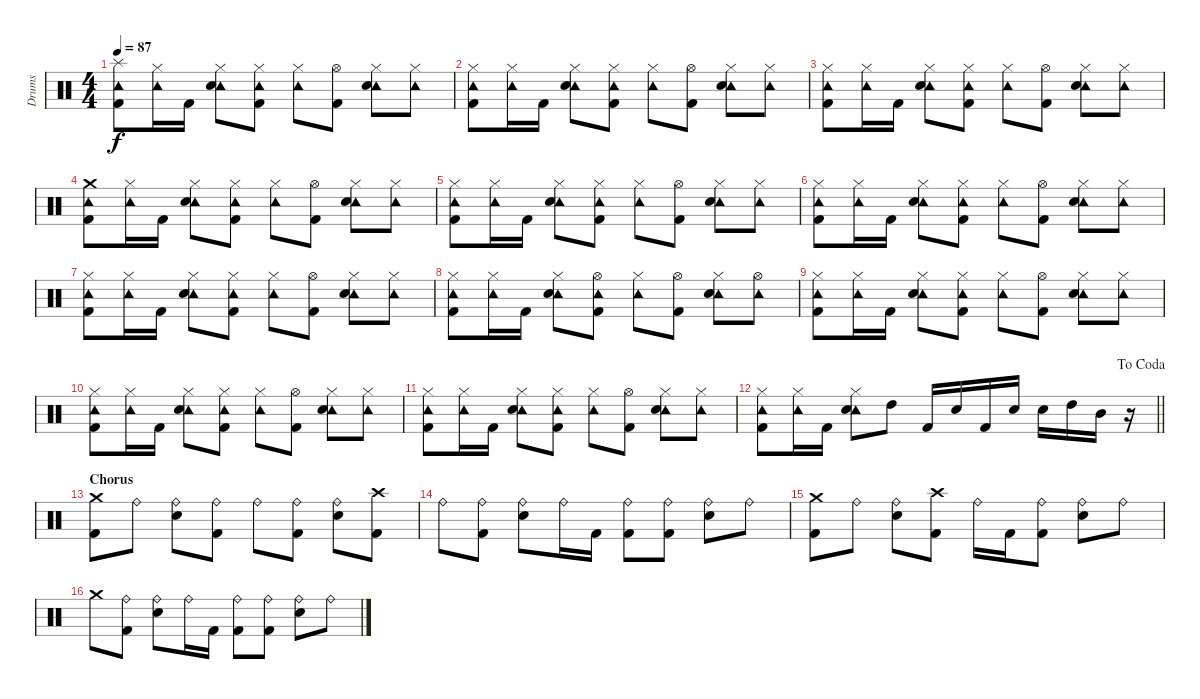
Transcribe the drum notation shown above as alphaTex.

\track ("Drums" "Drums") {instrument percussion}
\staff {score}
\articulation defaults
\ts (4 4)
\tempo 87
\clef neutral
\ks c
("Tambourine (hit)" "Splash (hit)" "Kick (hit) 2").8{dy f} ("Tambourine (hit)" "Hi-Hat (closed)").16 "Kick (hit) 2".16 ("Tambourine (hit)" "Hi-Hat (closed)" "Snare (hit) 2").8 ("Tambourine (hit)" "Hi-Hat (closed)" "Kick (hit) 2").8 ("Tambourine (hit)" "Hi-Hat (closed)").8 ("Hi-Hat (open)" "Kick (hit) 2").8 ("Tambourine (hit)" "Hi-Hat (closed)" "Snare (hit) 2").8 ("Tambourine (hit)" "Hi-Hat (closed)").8 |
("Tambourine (hit)" "Hi-Hat (closed)" "Kick (hit) 2").8 ("Tambourine (hit)" "Hi-Hat (closed)").16 "Kick (hit) 2".16 ("Tambourine (hit)" "Hi-Hat (closed)" "Snare (hit) 2").8 ("Tambourine (hit)" "Hi-Hat (closed)" "Kick (hit) 2").8 ("Tambourine (hit)" "Hi-Hat (closed)").8 ("Hi-Hat (open)" "Kick (hit) 2").8 ("Tambourine (hit)" "Hi-Hat (closed)" "Snare (hit) 2").8 ("Tambourine (hit)" "Hi-Hat (closed)").8 |
("Tambourine (hit)" "Hi-Hat (closed)" "Kick (hit) 2").8 ("Tambourine (hit)" "Hi-Hat (closed)").16 "Kick (hit) 2".16 ("Tambourine (hit)" "Hi-Hat (closed)" "Snare (hit) 2").8 ("Tambourine (hit)" "Hi-Hat (closed)" "Kick (hit) 2").8 ("Tambourine (hit)" "Hi-Hat (closed)").8 ("Hi-Hat (open)" "Kick (hit) 2").8 ("Tambourine (hit)" "Hi-Hat (closed)" "Snare (hit) 2").8 ("Tambourine (hit)" "Hi-Hat (closed)").8 |
("Tambourine (hit)" "Crash medium (hit)" "Kick (hit) 2").8 ("Tambourine (hit)" "Hi-Hat (closed)").16 "Kick (hit) 2".16 ("Tambourine (hit)" "Hi-Hat (closed)" "Snare (hit) 2").8 ("Tambourine (hit)" "Hi-Hat (closed)" "Kick (hit) 2").8 ("Tambourine (hit)" "Hi-Hat (closed)").8 ("Hi-Hat (open)" "Kick (hit) 2").8 ("Tambourine (hit)" "Hi-Hat (closed)" "Snare (hit) 2").8 ("Tambourine (hit)" "Hi-Hat (closed)").8 |
("Tambourine (hit)" "Hi-Hat (closed)" "Kick (hit) 2").8 ("Tambourine (hit)" "Hi-Hat (closed)").16 "Kick (hit) 2".16 ("Tambourine (hit)" "Hi-Hat (closed)" "Snare (hit) 2").8 ("Tambourine (hit)" "Hi-Hat (closed)" "Kick (hit) 2").8 ("Tambourine (hit)" "Hi-Hat (closed)").8 ("Hi-Hat (open)" "Kick (hit) 2").8 ("Tambourine (hit)" "Hi-Hat (closed)" "Snare (hit) 2").8 ("Tambourine (hit)" "Hi-Hat (closed)").8 |
("Tambourine (hit)" "Hi-Hat (closed)" "Kick (hit) 2").8 ("Tambourine (hit)" "Hi-Hat (closed)").16 "Kick (hit) 2".16 ("Tambourine (hit)" "Hi-Hat (closed)" "Snare (hit) 2").8 ("Tambourine (hit)" "Hi-Hat (closed)" "Kick (hit) 2").8 ("Tambourine (hit)" "Hi-Hat (closed)").8 ("Hi-Hat (open)" "Kick (hit) 2").8 ("Tambourine (hit)" "Hi-Hat (closed)" "Snare (hit) 2").8 ("Tambourine (hit)" "Hi-Hat (closed)").8 |
("Tambourine (hit)" "Hi-Hat (closed)" "Kick (hit) 2").8 ("Tambourine (hit)" "Hi-Hat (closed)").16 "Kick (hit) 2".16 ("Tambourine (hit)" "Hi-Hat (closed)" "Snare (hit) 2").8 ("Tambourine (hit)" "Hi-Hat (closed)" "Kick (hit) 2").8 ("Tambourine (hit)" "Hi-Hat (closed)").8 ("Hi-Hat (open)" "Kick (hit) 2").8 ("Tambourine (hit)" "Hi-Hat (closed)" "Snare (hit) 2").8 ("Tambourine (hit)" "Hi-Hat (closed)").8 |
("Tambourine (hit)" "Hi-Hat (closed)" "Kick (hit) 2").8 ("Tambourine (hit)" "Hi-Hat (closed)").16 "Kick (hit) 2".16 ("Tambourine (hit)" "Hi-Hat (closed)" "Snare (hit) 2").8 ("Tambourine (hit)" "Hi-Hat (open)" "Kick (hit) 2").8 ("Tambourine (hit)" "Hi-Hat (closed)").8 ("Hi-Hat (open)" "Kick (hit) 2").8 ("Tambourine (hit)" "Hi-Hat (closed)" "Snare (hit) 2").8 ("Tambourine (hit)" "Hi-Hat (open)").8 |
("Tambourine (hit)" "Hi-Hat (closed)" "Kick (hit) 2").8 ("Tambourine (hit)" "Hi-Hat (closed)").16 "Kick (hit) 2".16 ("Tambourine (hit)" "Hi-Hat (closed)" "Snare (hit) 2").8 ("Tambourine (hit)" "Hi-Hat (closed)" "Kick (hit) 2").8 ("Tambourine (hit)" "Hi-Hat (closed)").8 ("Hi-Hat (open)" "Kick (hit) 2").8 ("Tambourine (hit)" "Hi-Hat (closed)" "Snare (hit) 2").8 ("Tambourine (hit)" "Hi-Hat (closed)").8 |
("Tambourine (hit)" "Hi-Hat (closed)" "Kick (hit) 2").8 ("Tambourine (hit)" "Hi-Hat (closed)").16 "Kick (hit) 2".16 ("Tambourine (hit)" "Hi-Hat (closed)" "Snare (hit) 2").8 ("Tambourine (hit)" "Hi-Hat (closed)" "Kick (hit) 2").8 ("Tambourine (hit)" "Hi-Hat (closed)").8 ("Hi-Hat (open)" "Kick (hit) 2").8 ("Tambourine (hit)" "Hi-Hat (closed)" "Snare (hit) 2").8 ("Tambourine (hit)" "Hi-Hat (closed)").8 |
("Tambourine (hit)" "Hi-Hat (closed)" "Kick (hit) 2").8 ("Tambourine (hit)" "Hi-Hat (closed)").16 "Kick (hit) 2".16 ("Tambourine (hit)" "Hi-Hat (closed)" "Snare (hit) 2").8 ("Tambourine (hit)" "Hi-Hat (closed)" "Kick (hit) 2").8 ("Tambourine (hit)" "Hi-Hat (closed)").8 ("Hi-Hat (open)" "Kick (hit) 2").8 ("Tambourine (hit)" "Hi-Hat (closed)" "Snare (hit) 2").8 ("Tambourine (hit)" "Hi-Hat (closed)").8 |
\jump dacoda
\barLineRight lightlight
("Tambourine (hit)" "Hi-Hat (closed)" "Kick (hit) 2").8 ("Tambourine (hit)" "Hi-Hat (closed)").16 "Kick (hit) 2".16 ("Tambourine (hit)" "Hi-Hat (closed)" "Snare (hit) 2").8 "High Tom (hit)".8 "Kick (hit) 2".16 "Snare (hit) 2".16 "Kick (hit) 2".16 "Snare (hit) 2".16 "Snare (hit) 2".16 "High Tom (hit)".16 "Mid Tom (hit)".16 r.16 |
\section ("" "Chorus")
("Crash medium (hit)" "Kick (hit) 2").8 "Ride (bell)".8 ("Ride (bell)" "Snare (hit) 2").8 ("Ride (bell)" "Kick (hit) 2").8 "Ride (bell)".8 ("Ride (bell)" "Kick (hit) 2").8 ("Ride (bell)" "Snare (hit) 2").8 ("Crash high (hit)" "Kick (hit) 2").8 |
"Ride (bell)".8 ("Ride (bell)" "Kick (hit) 2").8 ("Ride (bell)" "Snare (hit) 2").8 "Ride (bell)".16 "Kick (hit) 2".16 ("Ride (bell)" "Kick (hit) 2").8 ("Ride (bell)" "Kick (hit) 2").8 ("Ride (bell)" "Snare (hit) 2").8 "Ride (bell)".8 |
("Crash medium (hit)" "Kick (hit) 2").8 "Ride (bell)".8 ("Ride (bell)" "Snare (hit) 2").8 ("Crash high (hit)" "Kick (hit) 2").8 "Ride (bell)".16 "Kick (hit) 2".16 ("Ride (bell)" "Kick (hit) 2").8 ("Ride (bell)" "Snare (hit) 2").8 "Ride (bell)".8 |
"Crash medium (hit)".8 ("Ride (bell)" "Kick (hit) 2").8 ("Ride (bell)" "Snare (hit) 2").8 "Ride (bell)".16 "Kick (hit) 2".16 ("Ride (bell)" "Kick (hit) 2").8 ("Ride (bell)" "Kick (hit) 2").8 ("Ride (bell)" "Snare (hit) 2").8 "Ride (bell)".8
